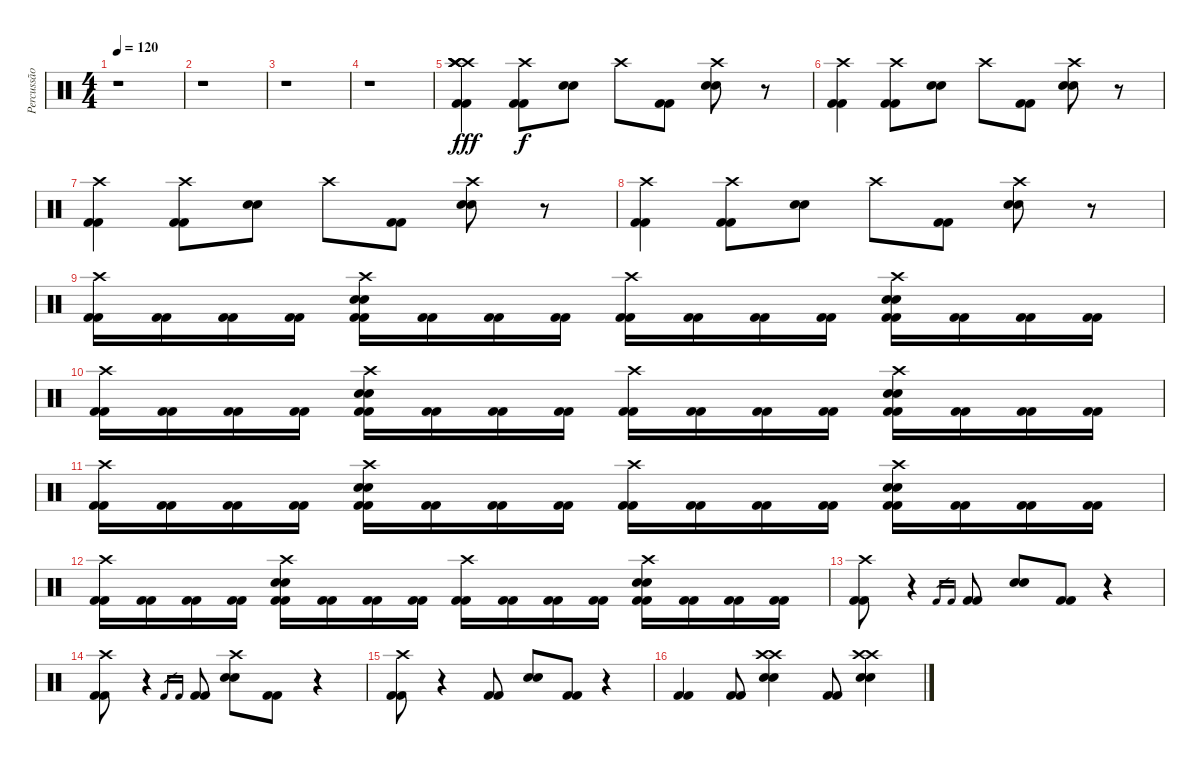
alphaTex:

\track ("Percussão" "Percussão") {instrument percussion}
\staff {score}
\articulation defaults
\ts (4 4)
\tempo 120
\clef neutral
\ks c
r.1{dy fff} |
r.1 |
r.1 |
r.1 |
("Crash high (hit)" "Crash high (hit)" "Crash high (hit)" "Crash high (hit)" "Kick (hit) 2" "Kick (hit) 2").4 ("Crash high (hit)" "Kick (hit) 2" "Kick (hit) 2").8{dy f} ("Snare (hit) 2" "Snare (hit) 2").8 "Crash high (hit)".8 ("Kick (hit) 2" "Kick (hit) 2").8 ("Crash high (hit)" "Snare (hit) 2" "Snare (hit) 2").8 r.8 |
("Crash high (hit)" "Kick (hit) 2" "Kick (hit) 2").4 ("Crash high (hit)" "Kick (hit) 2" "Kick (hit) 2").8 ("Snare (hit) 2" "Snare (hit) 2").8 "Crash high (hit)".8 ("Kick (hit) 2" "Kick (hit) 2").8 ("Crash high (hit)" "Snare (hit) 2" "Snare (hit) 2").8 r.8 |
("Crash high (hit)" "Kick (hit) 2" "Kick (hit) 2").4 ("Crash high (hit)" "Kick (hit) 2" "Kick (hit) 2").8 ("Snare (hit) 2" "Snare (hit) 2").8 "Crash high (hit)".8 ("Kick (hit) 2" "Kick (hit) 2").8 ("Crash high (hit)" "Snare (hit) 2" "Snare (hit) 2").8 r.8 |
("Crash high (hit)" "Kick (hit) 2" "Kick (hit) 2").4 ("Crash high (hit)" "Kick (hit) 2" "Kick (hit) 2").8 ("Snare (hit) 2" "Snare (hit) 2").8 "Crash high (hit)".8 ("Kick (hit) 2" "Kick (hit) 2").8 ("Crash high (hit)" "Snare (hit) 2" "Snare (hit) 2").8 r.8 |
("Crash high (hit)" "Kick (hit) 2" "Kick (hit) 2").16 ("Kick (hit) 2" "Kick (hit) 2").16 ("Kick (hit) 2" "Kick (hit) 2").16 ("Kick (hit) 2" "Kick (hit) 2").16 ("Crash high (hit)" "Snare (hit) 2" "Snare (hit) 2" "Kick (hit) 2" "Kick (hit) 2").16 ("Kick (hit) 2" "Kick (hit) 2").16 ("Kick (hit) 2" "Kick (hit) 2").16 ("Kick (hit) 2" "Kick (hit) 2").16 ("Crash high (hit)" "Kick (hit) 2" "Kick (hit) 2").16 ("Kick (hit) 2" "Kick (hit) 2").16 ("Kick (hit) 2" "Kick (hit) 2").16 ("Kick (hit) 2" "Kick (hit) 2").16 ("Crash high (hit)" "Snare (hit) 2" "Snare (hit) 2" "Kick (hit) 2" "Kick (hit) 2").16 ("Kick (hit) 2" "Kick (hit) 2").16 ("Kick (hit) 2" "Kick (hit) 2").16 ("Kick (hit) 2" "Kick (hit) 2").16 |
("Crash high (hit)" "Kick (hit) 2" "Kick (hit) 2").16 ("Kick (hit) 2" "Kick (hit) 2").16 ("Kick (hit) 2" "Kick (hit) 2").16 ("Kick (hit) 2" "Kick (hit) 2").16 ("Crash high (hit)" "Snare (hit) 2" "Snare (hit) 2" "Kick (hit) 2" "Kick (hit) 2").16 ("Kick (hit) 2" "Kick (hit) 2").16 ("Kick (hit) 2" "Kick (hit) 2").16 ("Kick (hit) 2" "Kick (hit) 2").16 ("Crash high (hit)" "Kick (hit) 2" "Kick (hit) 2").16 ("Kick (hit) 2" "Kick (hit) 2").16 ("Kick (hit) 2" "Kick (hit) 2").16 ("Kick (hit) 2" "Kick (hit) 2").16 ("Crash high (hit)" "Snare (hit) 2" "Snare (hit) 2" "Kick (hit) 2" "Kick (hit) 2").16 ("Kick (hit) 2" "Kick (hit) 2").16 ("Kick (hit) 2" "Kick (hit) 2").16 ("Kick (hit) 2" "Kick (hit) 2").16 |
("Crash high (hit)" "Kick (hit) 2" "Kick (hit) 2").16 ("Kick (hit) 2" "Kick (hit) 2").16 ("Kick (hit) 2" "Kick (hit) 2").16 ("Kick (hit) 2" "Kick (hit) 2").16 ("Crash high (hit)" "Snare (hit) 2" "Snare (hit) 2" "Kick (hit) 2" "Kick (hit) 2").16 ("Kick (hit) 2" "Kick (hit) 2").16 ("Kick (hit) 2" "Kick (hit) 2").16 ("Kick (hit) 2" "Kick (hit) 2").16 ("Crash high (hit)" "Kick (hit) 2" "Kick (hit) 2").16 ("Kick (hit) 2" "Kick (hit) 2").16 ("Kick (hit) 2" "Kick (hit) 2").16 ("Kick (hit) 2" "Kick (hit) 2").16 ("Crash high (hit)" "Snare (hit) 2" "Snare (hit) 2" "Kick (hit) 2" "Kick (hit) 2").16 ("Kick (hit) 2" "Kick (hit) 2").16 ("Kick (hit) 2" "Kick (hit) 2").16 ("Kick (hit) 2" "Kick (hit) 2").16 |
("Crash high (hit)" "Kick (hit) 2" "Kick (hit) 2").16 ("Kick (hit) 2" "Kick (hit) 2").16 ("Kick (hit) 2" "Kick (hit) 2").16 ("Kick (hit) 2" "Kick (hit) 2").16 ("Crash high (hit)" "Snare (hit) 2" "Snare (hit) 2" "Kick (hit) 2" "Kick (hit) 2").16 ("Kick (hit) 2" "Kick (hit) 2").16 ("Kick (hit) 2" "Kick (hit) 2").16 ("Kick (hit) 2" "Kick (hit) 2").16 ("Crash high (hit)" "Kick (hit) 2" "Kick (hit) 2").16 ("Kick (hit) 2" "Kick (hit) 2").16 ("Kick (hit) 2" "Kick (hit) 2").16 ("Kick (hit) 2" "Kick (hit) 2").16 ("Crash high (hit)" "Snare (hit) 2" "Snare (hit) 2" "Kick (hit) 2" "Kick (hit) 2").16 ("Kick (hit) 2" "Kick (hit) 2").16 ("Kick (hit) 2" "Kick (hit) 2").16 ("Kick (hit) 2" "Kick (hit) 2").16 |
("Crash high (hit)" "Kick (hit) 2" "Kick (hit) 2").8 r.4 "Kick (hit) 2".16{gr} "Kick (hit) 2".16{gr} ("Kick (hit) 2" "Kick (hit) 2").8 ("Snare (hit) 2" "Snare (hit) 2").8 ("Kick (hit) 2" "Kick (hit) 2").8 r.4 |
("Crash high (hit)" "Kick (hit) 2" "Kick (hit) 2").8 r.4 "Kick (hit) 2".16{gr} "Kick (hit) 2".16{gr} ("Kick (hit) 2" "Kick (hit) 2").8 ("Crash high (hit)" "Snare (hit) 2" "Snare (hit) 2").8 ("Kick (hit) 2" "Kick (hit) 2").8 r.4 |
("Crash high (hit)" "Kick (hit) 2" "Kick (hit) 2").8 r.4 ("Kick (hit) 2" "Kick (hit) 2").8 ("Snare (hit) 2" "Snare (hit) 2").8 ("Kick (hit) 2" "Kick (hit) 2").8 r.4 |
("Kick (hit) 2" "Kick (hit) 2").4 ("Kick (hit) 2" "Kick (hit) 2").8 ("Crash high (hit)" "Crash high (hit)" "Snare (hit) 2" "Snare (hit) 2").4 ("Kick (hit) 2" "Kick (hit) 2").8 ("Crash high (hit)" "Crash high (hit)" "Snare (hit) 2" "Snare (hit) 2").4
